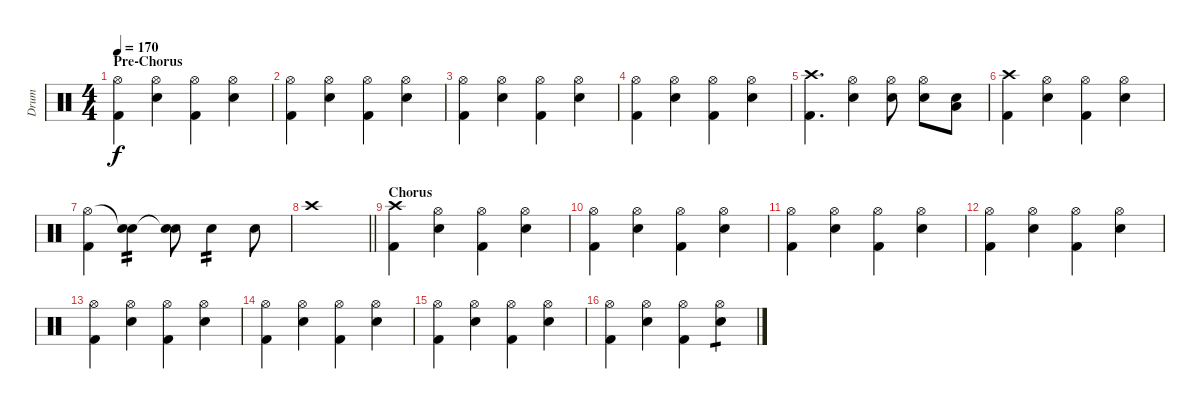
\track ("Drum" "Drum") {instrument percussion}
\staff {score}
\articulation defaults
\ts (4 4)
\section ("" "Pre-Chorus")
\tempo 170
\clef neutral
\ks c
("Hi-Hat (open)" "Kick (hit) 2").4{dy f} ("Hi-Hat (open)" "Electric Snare (hit)").4 ("Hi-Hat (open)" "Kick (hit) 2").4 ("Hi-Hat (open)" "Electric Snare (hit)").4 |
("Hi-Hat (open)" "Kick (hit) 2").4 ("Hi-Hat (open)" "Electric Snare (hit)").4 ("Hi-Hat (open)" "Kick (hit) 2").4 ("Hi-Hat (open)" "Electric Snare (hit)").4 |
("Hi-Hat (open)" "Kick (hit) 2").4 ("Hi-Hat (open)" "Electric Snare (hit)").4 ("Hi-Hat (open)" "Kick (hit) 2").4 ("Hi-Hat (open)" "Electric Snare (hit)").4 |
("Hi-Hat (open)" "Kick (hit) 2").4 ("Hi-Hat (open)" "Electric Snare (hit)").4 ("Hi-Hat (open)" "Kick (hit) 2").4 ("Hi-Hat (open)" "Electric Snare (hit)").4 |
("Crash high (hit)" "Kick (hit) 2").4{d} ("Hi-Hat (open)" "Electric Snare (hit)").4 ("Hi-Hat (open)" "Electric Snare (hit)").8 ("Hi-Hat (open)" "Electric Snare (hit)").8 ("Low Tom (hit)" "Electric Snare (hit)").8 |
("Crash high (hit)" "Kick (hit) 2").4 ("Hi-Hat (open)" "Electric Snare (hit)").4 ("Hi-Hat (open)" "Kick (hit) 2").4 ("Hi-Hat (open)" "Electric Snare (hit)").4 |
("Hi-Hat (open)" "Kick (hit) 2").4 ("Snare (hit)"{t} "Electric Snare (hit)").4{tp 2} ("Snare (hit)"{t} "Electric Snare (hit)").8 "Electric Snare (hit)".4{tp 2} "Electric Snare (hit)".8 |
\barLineRight lightlight "Crash high (hit)".1
|
\section ("" "Chorus")
("Crash high (hit)" "Kick (hit) 2").4 ("Hi-Hat (open)" "Electric Snare (hit)").4 ("Hi-Hat (open)" "Kick (hit) 2").4 ("Hi-Hat (open)" "Electric Snare (hit)").4 |
("Hi-Hat (open)" "Kick (hit) 2").4 ("Hi-Hat (open)" "Electric Snare (hit)").4 ("Hi-Hat (open)" "Kick (hit) 2").4 ("Hi-Hat (open)" "Electric Snare (hit)").4 |
("Hi-Hat (open)" "Kick (hit) 2").4 ("Hi-Hat (open)" "Electric Snare (hit)").4 ("Hi-Hat (open)" "Kick (hit) 2").4 ("Hi-Hat (open)" "Electric Snare (hit)").4 |
("Hi-Hat (open)" "Kick (hit) 2").4 ("Hi-Hat (open)" "Electric Snare (hit)").4 ("Hi-Hat (open)" "Kick (hit) 2").4 ("Hi-Hat (open)" "Electric Snare (hit)").4 |
("Hi-Hat (open)" "Kick (hit) 2").4 ("Hi-Hat (open)" "Electric Snare (hit)").4 ("Hi-Hat (open)" "Kick (hit) 2").4 ("Hi-Hat (open)" "Electric Snare (hit)").4 |
("Hi-Hat (open)" "Kick (hit) 2").4 ("Hi-Hat (open)" "Electric Snare (hit)").4 ("Hi-Hat (open)" "Kick (hit) 2").4 ("Hi-Hat (open)" "Electric Snare (hit)").4 |
("Hi-Hat (open)" "Kick (hit) 2").4 ("Hi-Hat (open)" "Electric Snare (hit)").4 ("Hi-Hat (open)" "Kick (hit) 2").4 ("Hi-Hat (open)" "Electric Snare (hit)").4 |
("Hi-Hat (open)" "Kick (hit) 2").4 ("Hi-Hat (open)" "Electric Snare (hit)").4 ("Hi-Hat (open)" "Kick (hit) 2").4 ("Hi-Hat (open)" "Electric Snare (hit)").4{tp 1}
